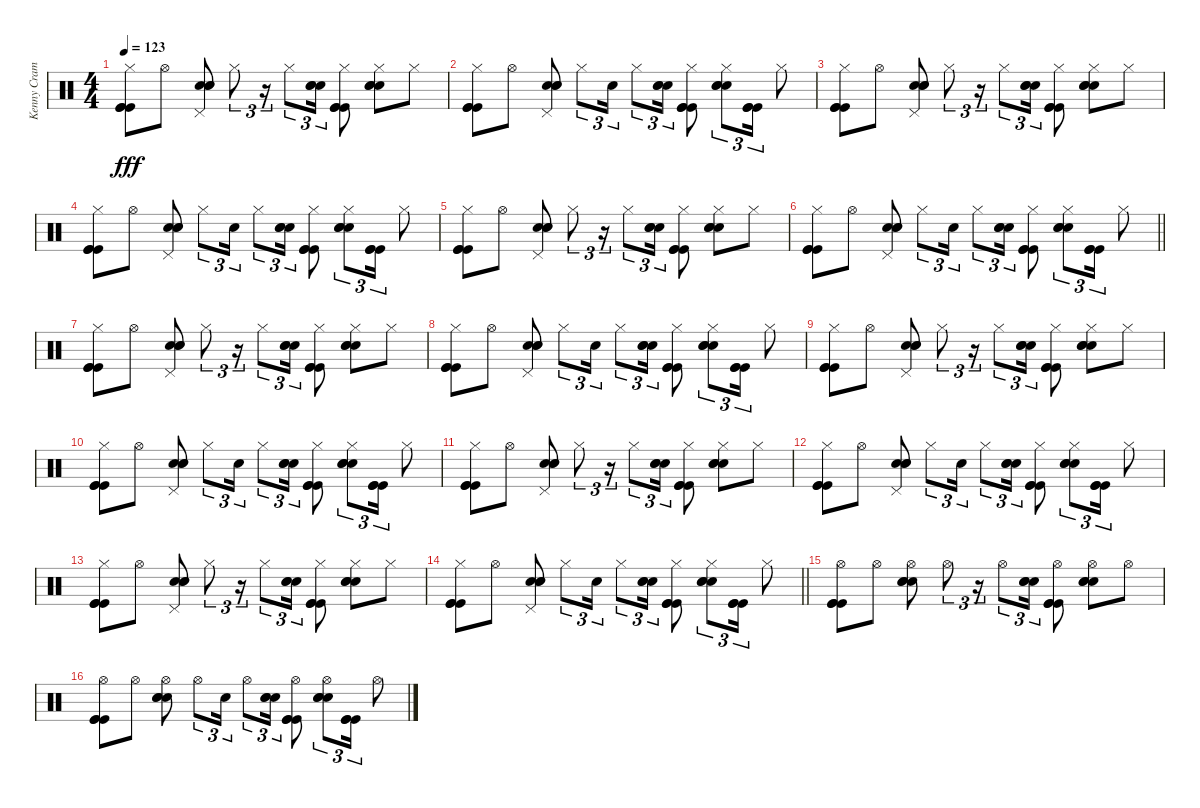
\track ("Kenny Cramme - Drums" "Kenny Cram") {instrument percussion}
\staff {score}
\articulation defaults
\ts (4 4)
\tempo 123
\clef neutral
\ks c
("Hi-Hat (closed)" "Kick (hit)" "Kick (hit)" "Kick (hit)").8{dy fff} "Hi-Hat (open)".8 ("Pedal Hi-Hat (hit)" "Snare (hit) 2" "Snare (hit) 2" "Snare (hit) 2").8 "Hi-Hat (closed)".8{tu (3 2)} r.16{tu (3 2)} "Hi-Hat (closed)".8{tu (3 2)} ("Snare (hit) 2" "Snare (hit) 2" "Snare (hit) 2").16{tu (3 2)} ("Hi-Hat (closed)" "Kick (hit)" "Kick (hit)" "Kick (hit)").8 ("Hi-Hat (closed)" "Snare (hit) 2" "Snare (hit) 2" "Snare (hit) 2").8 "Hi-Hat (closed)".8 |
("Hi-Hat (closed)" "Kick (hit)" "Kick (hit)" "Kick (hit)").8 "Hi-Hat (open)".8 ("Pedal Hi-Hat (hit)" "Snare (hit) 2" "Snare (hit) 2" "Snare (hit) 2").8 "Hi-Hat (closed)".8{tu (3 2)} "Snare (hit) 2".16{tu (3 2)} "Hi-Hat (closed)".8{tu (3 2)} ("Snare (hit) 2" "Snare (hit) 2" "Snare (hit) 2").16{tu (3 2)} ("Hi-Hat (closed)" "Kick (hit)" "Kick (hit)" "Kick (hit)").8 ("Hi-Hat (closed)" "Snare (hit) 2" "Snare (hit) 2" "Snare (hit) 2").8{tu (3 2)} ("Kick (hit)" "Kick (hit)" "Kick (hit)").16{tu (3 2)} "Hi-Hat (closed)".8 |
("Hi-Hat (closed)" "Kick (hit)" "Kick (hit)" "Kick (hit)").8 "Hi-Hat (open)".8 ("Pedal Hi-Hat (hit)" "Snare (hit) 2" "Snare (hit) 2" "Snare (hit) 2").8 "Hi-Hat (closed)".8{tu (3 2)} r.16{tu (3 2)} "Hi-Hat (closed)".8{tu (3 2)} ("Snare (hit) 2" "Snare (hit) 2" "Snare (hit) 2").16{tu (3 2)} ("Hi-Hat (closed)" "Kick (hit)" "Kick (hit)" "Kick (hit)").8 ("Hi-Hat (closed)" "Snare (hit) 2" "Snare (hit) 2" "Snare (hit) 2").8 "Hi-Hat (closed)".8 |
("Hi-Hat (closed)" "Kick (hit)" "Kick (hit)" "Kick (hit)").8 "Hi-Hat (open)".8 ("Pedal Hi-Hat (hit)" "Snare (hit) 2" "Snare (hit) 2" "Snare (hit) 2").8 "Hi-Hat (closed)".8{tu (3 2)} "Snare (hit) 2".16{tu (3 2)} "Hi-Hat (closed)".8{tu (3 2)} ("Snare (hit) 2" "Snare (hit) 2" "Snare (hit) 2").16{tu (3 2)} ("Hi-Hat (closed)" "Kick (hit)" "Kick (hit)" "Kick (hit)").8 ("Hi-Hat (closed)" "Snare (hit) 2" "Snare (hit) 2" "Snare (hit) 2").8{tu (3 2)} ("Kick (hit)" "Kick (hit)" "Kick (hit)").16{tu (3 2)} "Hi-Hat (closed)".8 |
("Hi-Hat (closed)" "Kick (hit)" "Kick (hit)" "Kick (hit)").8 "Hi-Hat (open)".8 ("Pedal Hi-Hat (hit)" "Snare (hit) 2" "Snare (hit) 2" "Snare (hit) 2").8 "Hi-Hat (closed)".8{tu (3 2)} r.16{tu (3 2)} "Hi-Hat (closed)".8{tu (3 2)} ("Snare (hit) 2" "Snare (hit) 2" "Snare (hit) 2").16{tu (3 2)} ("Hi-Hat (closed)" "Kick (hit)" "Kick (hit)" "Kick (hit)").8 ("Hi-Hat (closed)" "Snare (hit) 2" "Snare (hit) 2" "Snare (hit) 2").8 "Hi-Hat (closed)".8 |
\barLineRight lightlight
("Hi-Hat (closed)" "Kick (hit)" "Kick (hit)" "Kick (hit)").8 "Hi-Hat (open)".8 ("Pedal Hi-Hat (hit)" "Snare (hit) 2" "Snare (hit) 2" "Snare (hit) 2").8 "Hi-Hat (closed)".8{tu (3 2)} "Snare (hit) 2".16{tu (3 2)} "Hi-Hat (closed)".8{tu (3 2)} ("Snare (hit) 2" "Snare (hit) 2" "Snare (hit) 2").16{tu (3 2)} ("Hi-Hat (closed)" "Kick (hit)" "Kick (hit)" "Kick (hit)").8 ("Hi-Hat (closed)" "Snare (hit) 2" "Snare (hit) 2" "Snare (hit) 2").8{tu (3 2)} ("Kick (hit)" "Kick (hit)" "Kick (hit)").16{tu (3 2)} "Hi-Hat (closed)".8 |
("Hi-Hat (closed)" "Kick (hit)" "Kick (hit)" "Kick (hit)").8 "Hi-Hat (open)".8 ("Pedal Hi-Hat (hit)" "Snare (hit) 2" "Snare (hit) 2" "Snare (hit) 2").8 "Hi-Hat (closed)".8{tu (3 2)} r.16{tu (3 2)} "Hi-Hat (closed)".8{tu (3 2)} ("Snare (hit) 2" "Snare (hit) 2" "Snare (hit) 2").16{tu (3 2)} ("Hi-Hat (closed)" "Kick (hit)" "Kick (hit)" "Kick (hit)").8 ("Hi-Hat (closed)" "Snare (hit) 2" "Snare (hit) 2" "Snare (hit) 2").8 "Hi-Hat (closed)".8 |
("Hi-Hat (closed)" "Kick (hit)" "Kick (hit)" "Kick (hit)").8 "Hi-Hat (open)".8 ("Pedal Hi-Hat (hit)" "Snare (hit) 2" "Snare (hit) 2" "Snare (hit) 2").8 "Hi-Hat (closed)".8{tu (3 2)} "Snare (hit) 2".16{tu (3 2)} "Hi-Hat (closed)".8{tu (3 2)} ("Snare (hit) 2" "Snare (hit) 2" "Snare (hit) 2").16{tu (3 2)} ("Hi-Hat (closed)" "Kick (hit)" "Kick (hit)" "Kick (hit)").8 ("Hi-Hat (closed)" "Snare (hit) 2" "Snare (hit) 2" "Snare (hit) 2").8{tu (3 2)} ("Kick (hit)" "Kick (hit)" "Kick (hit)").16{tu (3 2)} "Hi-Hat (closed)".8 |
("Hi-Hat (closed)" "Kick (hit)" "Kick (hit)" "Kick (hit)").8 "Hi-Hat (open)".8 ("Pedal Hi-Hat (hit)" "Snare (hit) 2" "Snare (hit) 2" "Snare (hit) 2").8 "Hi-Hat (closed)".8{tu (3 2)} r.16{tu (3 2)} "Hi-Hat (closed)".8{tu (3 2)} ("Snare (hit) 2" "Snare (hit) 2" "Snare (hit) 2").16{tu (3 2)} ("Hi-Hat (closed)" "Kick (hit)" "Kick (hit)" "Kick (hit)").8 ("Hi-Hat (closed)" "Snare (hit) 2" "Snare (hit) 2" "Snare (hit) 2").8 "Hi-Hat (closed)".8 |
("Hi-Hat (closed)" "Kick (hit)" "Kick (hit)" "Kick (hit)").8 "Hi-Hat (open)".8 ("Pedal Hi-Hat (hit)" "Snare (hit) 2" "Snare (hit) 2" "Snare (hit) 2").8 "Hi-Hat (closed)".8{tu (3 2)} "Snare (hit) 2".16{tu (3 2)} "Hi-Hat (closed)".8{tu (3 2)} ("Snare (hit) 2" "Snare (hit) 2" "Snare (hit) 2").16{tu (3 2)} ("Hi-Hat (closed)" "Kick (hit)" "Kick (hit)" "Kick (hit)").8 ("Hi-Hat (closed)" "Snare (hit) 2" "Snare (hit) 2" "Snare (hit) 2").8{tu (3 2)} ("Kick (hit)" "Kick (hit)" "Kick (hit)").16{tu (3 2)} "Hi-Hat (closed)".8 |
("Hi-Hat (closed)" "Kick (hit)" "Kick (hit)" "Kick (hit)").8 "Hi-Hat (open)".8 ("Pedal Hi-Hat (hit)" "Snare (hit) 2" "Snare (hit) 2" "Snare (hit) 2").8 "Hi-Hat (closed)".8{tu (3 2)} r.16{tu (3 2)} "Hi-Hat (closed)".8{tu (3 2)} ("Snare (hit) 2" "Snare (hit) 2" "Snare (hit) 2").16{tu (3 2)} ("Hi-Hat (closed)" "Kick (hit)" "Kick (hit)" "Kick (hit)").8 ("Hi-Hat (closed)" "Snare (hit) 2" "Snare (hit) 2" "Snare (hit) 2").8 "Hi-Hat (closed)".8 |
("Hi-Hat (closed)" "Kick (hit)" "Kick (hit)" "Kick (hit)").8 "Hi-Hat (open)".8 ("Pedal Hi-Hat (hit)" "Snare (hit) 2" "Snare (hit) 2" "Snare (hit) 2").8 "Hi-Hat (closed)".8{tu (3 2)} "Snare (hit) 2".16{tu (3 2)} "Hi-Hat (closed)".8{tu (3 2)} ("Snare (hit) 2" "Snare (hit) 2" "Snare (hit) 2").16{tu (3 2)} ("Hi-Hat (closed)" "Kick (hit)" "Kick (hit)" "Kick (hit)").8 ("Hi-Hat (closed)" "Snare (hit) 2" "Snare (hit) 2" "Snare (hit) 2").8{tu (3 2)} ("Kick (hit)" "Kick (hit)" "Kick (hit)").16{tu (3 2)} "Hi-Hat (closed)".8 |
("Hi-Hat (closed)" "Kick (hit)" "Kick (hit)" "Kick (hit)").8 "Hi-Hat (open)".8 ("Pedal Hi-Hat (hit)" "Snare (hit) 2" "Snare (hit) 2" "Snare (hit) 2").8 "Hi-Hat (closed)".8{tu (3 2)} r.16{tu (3 2)} "Hi-Hat (closed)".8{tu (3 2)} ("Snare (hit) 2" "Snare (hit) 2" "Snare (hit) 2").16{tu (3 2)} ("Hi-Hat (closed)" "Kick (hit)" "Kick (hit)" "Kick (hit)").8 ("Hi-Hat (closed)" "Snare (hit) 2" "Snare (hit) 2" "Snare (hit) 2").8 "Hi-Hat (closed)".8 |
\barLineRight lightlight
("Hi-Hat (closed)" "Kick (hit)" "Kick (hit)" "Kick (hit)").8 "Hi-Hat (open)".8 ("Pedal Hi-Hat (hit)" "Snare (hit) 2" "Snare (hit) 2" "Snare (hit) 2").8 "Hi-Hat (closed)".8{tu (3 2)} "Snare (hit) 2".16{tu (3 2)} "Hi-Hat (closed)".8{tu (3 2)} ("Snare (hit) 2" "Snare (hit) 2" "Snare (hit) 2").16{tu (3 2)} ("Hi-Hat (closed)" "Kick (hit)" "Kick (hit)" "Kick (hit)").8 ("Hi-Hat (closed)" "Snare (hit) 2" "Snare (hit) 2" "Snare (hit) 2").8{tu (3 2)} ("Kick (hit)" "Kick (hit)" "Kick (hit)").16{tu (3 2)} "Hi-Hat (closed)".8 |
("Hi-Hat (open)" "Kick (hit)" "Kick (hit)" "Kick (hit)").8 "Hi-Hat (open)".8 ("Hi-Hat (open)" "Snare (hit) 2" "Snare (hit) 2" "Snare (hit) 2").8 "Hi-Hat (open)".8{tu (3 2)} r.16{tu (3 2)} "Hi-Hat (open)".8{tu (3 2)} ("Snare (hit) 2" "Snare (hit) 2" "Snare (hit) 2").16{tu (3 2)} ("Hi-Hat (open)" "Kick (hit)" "Kick (hit)" "Kick (hit)").8 ("Hi-Hat (open)" "Snare (hit) 2" "Snare (hit) 2" "Snare (hit) 2").8 "Hi-Hat (open)".8 |
("Hi-Hat (open)" "Kick (hit)" "Kick (hit)" "Kick (hit)").8 "Hi-Hat (open)".8 ("Hi-Hat (open)" "Snare (hit) 2" "Snare (hit) 2" "Snare (hit) 2").8 "Hi-Hat (open)".8{tu (3 2)} "Snare (hit) 2".16{tu (3 2)} "Hi-Hat (open)".8{tu (3 2)} ("Snare (hit) 2" "Snare (hit) 2" "Snare (hit) 2").16{tu (3 2)} ("Hi-Hat (open)" "Kick (hit)" "Kick (hit)" "Kick (hit)").8 ("Hi-Hat (open)" "Snare (hit) 2" "Snare (hit) 2" "Snare (hit) 2").8{tu (3 2)} ("Kick (hit)" "Kick (hit)" "Kick (hit)").16{tu (3 2)} "Hi-Hat (open)".8
